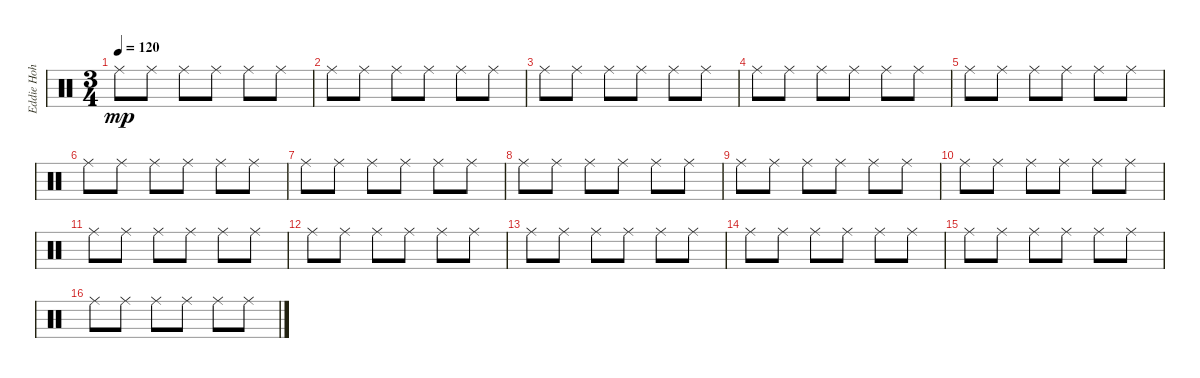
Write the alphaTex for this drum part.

\track ("Eddie Hoh" "Eddie Hoh") {instrument percussion}
\staff {score}
\articulation defaults
\ts (3 4)
\tempo 120
\clef neutral
\ks c "Ride (middle)".8{dy mp} "Ride (middle)".8 "Ride (middle)".8 "Ride (middle)".8 "Ride (middle)".8 "Ride (middle)".8
|
"Ride (middle)".8 "Ride (middle)".8 "Ride (middle)".8 "Ride (middle)".8 "Ride (middle)".8 "Ride (middle)".8 |
"Ride (middle)".8 "Ride (middle)".8 "Ride (middle)".8 "Ride (middle)".8 "Ride (middle)".8 "Ride (middle)".8 |
"Ride (middle)".8 "Ride (middle)".8 "Ride (middle)".8 "Ride (middle)".8 "Ride (middle)".8 "Ride (middle)".8 |
"Ride (middle)".8 "Ride (middle)".8 "Ride (middle)".8 "Ride (middle)".8 "Ride (middle)".8 "Ride (middle)".8 |
"Ride (middle)".8 "Ride (middle)".8 "Ride (middle)".8 "Ride (middle)".8 "Ride (middle)".8 "Ride (middle)".8 |
"Ride (middle)".8 "Ride (middle)".8 "Ride (middle)".8 "Ride (middle)".8 "Ride (middle)".8 "Ride (middle)".8 |
"Ride (middle)".8 "Ride (middle)".8 "Ride (middle)".8 "Ride (middle)".8 "Ride (middle)".8 "Ride (middle)".8 |
"Ride (middle)".8 "Ride (middle)".8 "Ride (middle)".8 "Ride (middle)".8 "Ride (middle)".8 "Ride (middle)".8 |
"Ride (middle)".8 "Ride (middle)".8 "Ride (middle)".8 "Ride (middle)".8 "Ride (middle)".8 "Ride (middle)".8 |
"Ride (middle)".8 "Ride (middle)".8 "Ride (middle)".8 "Ride (middle)".8 "Ride (middle)".8 "Ride (middle)".8 |
"Ride (middle)".8 "Ride (middle)".8 "Ride (middle)".8 "Ride (middle)".8 "Ride (middle)".8 "Ride (middle)".8 |
"Ride (middle)".8 "Ride (middle)".8 "Ride (middle)".8 "Ride (middle)".8 "Ride (middle)".8 "Ride (middle)".8 |
"Ride (middle)".8 "Ride (middle)".8 "Ride (middle)".8 "Ride (middle)".8 "Ride (middle)".8 "Ride (middle)".8 |
"Ride (middle)".8 "Ride (middle)".8 "Ride (middle)".8 "Ride (middle)".8 "Ride (middle)".8 "Ride (middle)".8 |
"Ride (middle)".8 "Ride (middle)".8 "Ride (middle)".8 "Ride (middle)".8 "Ride (middle)".8 "Ride (middle)".8
